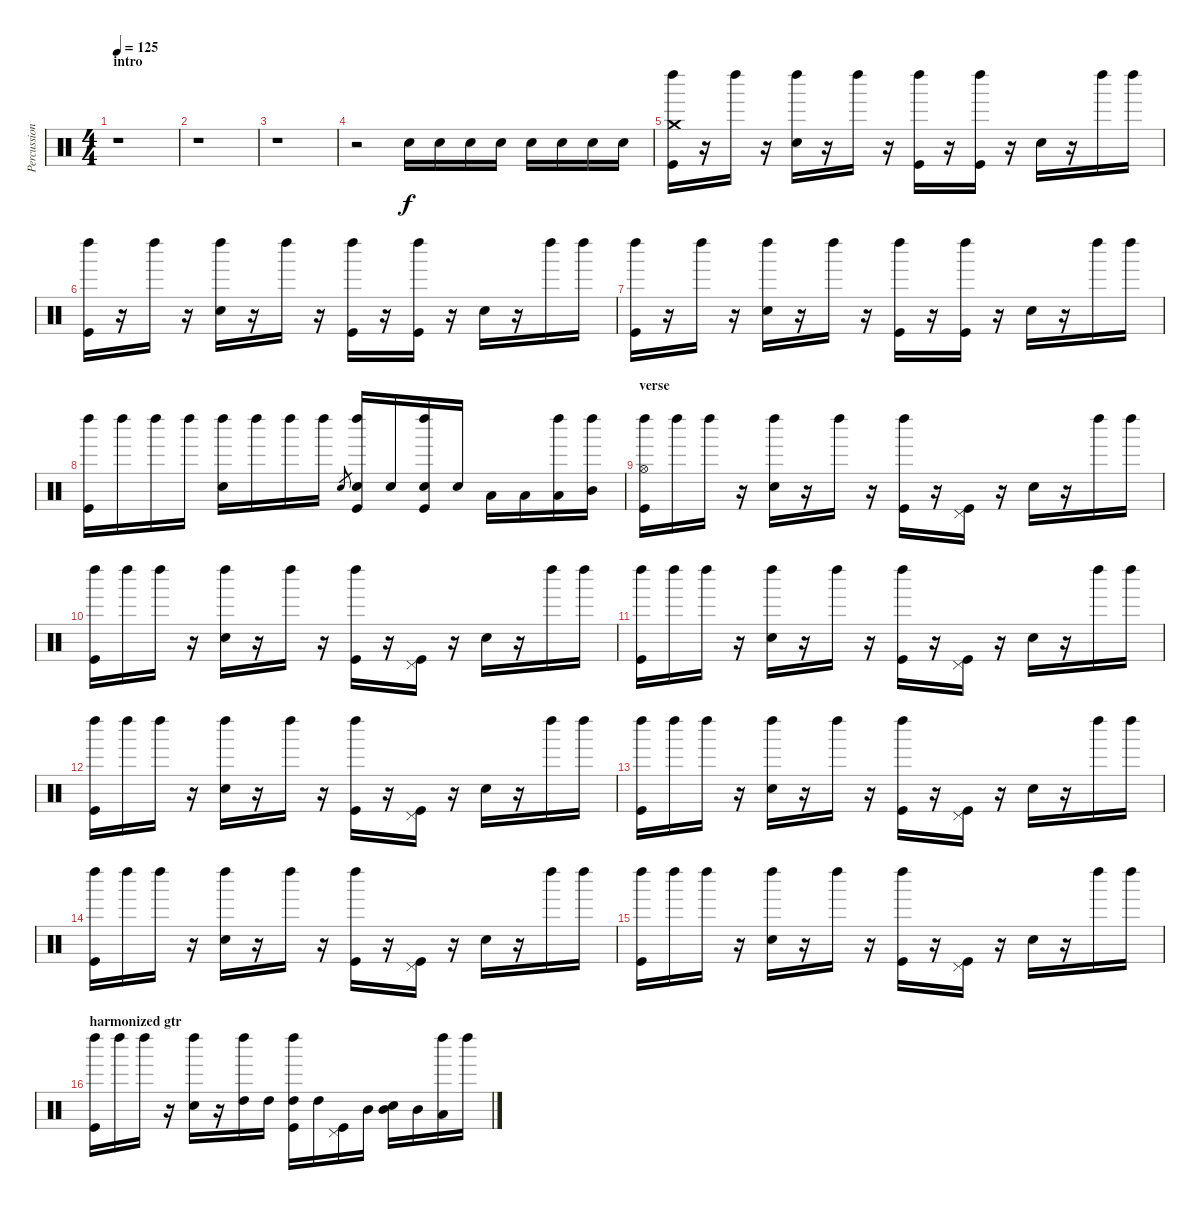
\track ("Percussions" "Percussion") {instrument percussion}
\staff {score}
\articulation defaults
\ts (4 4)
\section ("" "intro")
\tempo 125
\clef neutral
\ks c
r.1{dy f} |
r.1 |
r.1 |
r.2 "Snare (hit) 2".16{volume 6} "Snare (hit) 2".16{volume 13} "Snare (hit) 2".16 "Snare (hit) 2".16 "Snare (hit) 2".16 "Snare (hit) 2".16 "Snare (hit) 2".16 "Snare (hit) 2".16 |
("Crash medium (hit)" "Left Maraca (hit)" "Kick (hit)").16 r.16 "Left Maraca (hit)".16 r.16 ("Left Maraca (hit)" "Snare (hit) 2").16 r.16 "Left Maraca (hit)".16 r.16 ("Left Maraca (hit)" "Kick (hit)").16 r.16 ("Left Maraca (hit)" "Kick (hit)").16 r.16 "Snare (hit) 2".16 r.16 "Left Maraca (hit)".16 "Left Maraca (hit)".16 |
("Left Maraca (hit)" "Kick (hit)").16 r.16 "Left Maraca (hit)".16 r.16 ("Left Maraca (hit)" "Snare (hit) 2").16 r.16 "Left Maraca (hit)".16 r.16 ("Left Maraca (hit)" "Kick (hit)").16 r.16 ("Left Maraca (hit)" "Kick (hit)").16 r.16 "Snare (hit) 2".16 r.16 "Left Maraca (hit)".16 "Left Maraca (hit)".16 |
("Left Maraca (hit)" "Kick (hit)").16 r.16 "Left Maraca (hit)".16 r.16 ("Left Maraca (hit)" "Snare (hit) 2").16 r.16 "Left Maraca (hit)".16 r.16 ("Left Maraca (hit)" "Kick (hit)").16 r.16 ("Left Maraca (hit)" "Kick (hit)").16 r.16 "Snare (hit) 2".16 r.16 "Left Maraca (hit)".16 "Left Maraca (hit)".16 |
("Left Maraca (hit)" "Kick (hit)").16 "Left Maraca (hit)".16 "Left Maraca (hit)".16 "Left Maraca (hit)".16 ("Left Maraca (hit)" "Snare (hit) 2").16 "Left Maraca (hit)".16 "Left Maraca (hit)".16 "Left Maraca (hit)".16{volume 8} "Snare (hit) 2".8{gr} ("Left Maraca (hit)" "Snare (hit) 2" "Kick (hit)").16{volume 13} "Snare (hit) 2".16 ("Left Maraca (hit)" "Snare (hit) 2" "Kick (hit)").16 "Snare (hit) 2".16 "Low Tom (hit)".16 "Low Tom (hit)".16 ("Left Maraca (hit)" "Low Tom (hit)").16 ("Left Maraca (hit)" "Mid Tom (hit)").16 |
\section ("" "verse")
("Hi-Hat (open)" "Left Maraca (hit)" "Kick (hit)").16 "Left Maraca (hit)".16 "Left Maraca (hit)".16 r.16 ("Left Maraca (hit)" "Snare (hit) 2").16 r.16 "Left Maraca (hit)".16 r.16 ("Left Maraca (hit)" "Kick (hit)").16 r.16 ("Pedal Hi-Hat (hit)" "Kick (hit)").16 r.16 "Snare (hit) 2".16 r.16 "Left Maraca (hit)".16 "Left Maraca (hit)".16 |
("Left Maraca (hit)" "Kick (hit)").16 "Left Maraca (hit)".16 "Left Maraca (hit)".16 r.16 ("Left Maraca (hit)" "Snare (hit) 2").16 r.16 "Left Maraca (hit)".16 r.16 ("Left Maraca (hit)" "Kick (hit)").16 r.16 ("Pedal Hi-Hat (hit)" "Kick (hit)").16 r.16 "Snare (hit) 2".16 r.16 "Left Maraca (hit)".16 "Left Maraca (hit)".16 |
("Left Maraca (hit)" "Kick (hit)").16 "Left Maraca (hit)".16 "Left Maraca (hit)".16 r.16 ("Left Maraca (hit)" "Snare (hit) 2").16 r.16 "Left Maraca (hit)".16 r.16 ("Left Maraca (hit)" "Kick (hit)").16 r.16 ("Pedal Hi-Hat (hit)" "Kick (hit)").16 r.16 "Snare (hit) 2".16 r.16 "Left Maraca (hit)".16 "Left Maraca (hit)".16 |
("Left Maraca (hit)" "Kick (hit)").16 "Left Maraca (hit)".16 "Left Maraca (hit)".16 r.16 ("Left Maraca (hit)" "Snare (hit) 2").16 r.16 "Left Maraca (hit)".16 r.16 ("Left Maraca (hit)" "Kick (hit)").16 r.16 ("Pedal Hi-Hat (hit)" "Kick (hit)").16 r.16 "Snare (hit) 2".16 r.16 "Left Maraca (hit)".16 "Left Maraca (hit)".16 |
("Left Maraca (hit)" "Kick (hit)").16 "Left Maraca (hit)".16 "Left Maraca (hit)".16 r.16 ("Left Maraca (hit)" "Snare (hit) 2").16 r.16 "Left Maraca (hit)".16 r.16 ("Left Maraca (hit)" "Kick (hit)").16 r.16 ("Pedal Hi-Hat (hit)" "Kick (hit)").16 r.16 "Snare (hit) 2".16 r.16 "Left Maraca (hit)".16 "Left Maraca (hit)".16 |
("Left Maraca (hit)" "Kick (hit)").16 "Left Maraca (hit)".16 "Left Maraca (hit)".16 r.16 ("Left Maraca (hit)" "Snare (hit) 2").16 r.16 "Left Maraca (hit)".16 r.16 ("Left Maraca (hit)" "Kick (hit)").16 r.16 ("Pedal Hi-Hat (hit)" "Kick (hit)").16 r.16 "Snare (hit) 2".16 r.16 "Left Maraca (hit)".16 "Left Maraca (hit)".16 |
("Left Maraca (hit)" "Kick (hit)").16 "Left Maraca (hit)".16 "Left Maraca (hit)".16 r.16 ("Left Maraca (hit)" "Snare (hit) 2").16 r.16 "Left Maraca (hit)".16 r.16 ("Left Maraca (hit)" "Kick (hit)").16 r.16 ("Pedal Hi-Hat (hit)" "Kick (hit)").16 r.16 "Snare (hit) 2".16 r.16 "Left Maraca (hit)".16 "Left Maraca (hit)".16 |
\section ("" "harmonized gtr")
("Left Maraca (hit)" "Kick (hit)").16 "Left Maraca (hit)".16 "Left Maraca (hit)".16 r.16 ("Left Maraca (hit)" "Snare (hit) 2").16 r.16 ("Left Maraca (hit)" "High Tom (hit)").16 "High Tom (hit)".16 ("Left Maraca (hit)" "High Tom (hit)" "Kick (hit)").16 "High Tom (hit)".16 ("Pedal Hi-Hat (hit)" "Kick (hit)").16 "Mid Tom (hit)".16 ("Snare (hit) 2" "Mid Tom (hit)").16 "Mid Tom (hit)".16 ("Left Maraca (hit)" "Low Tom (hit)").16 "Left Maraca (hit)".16
